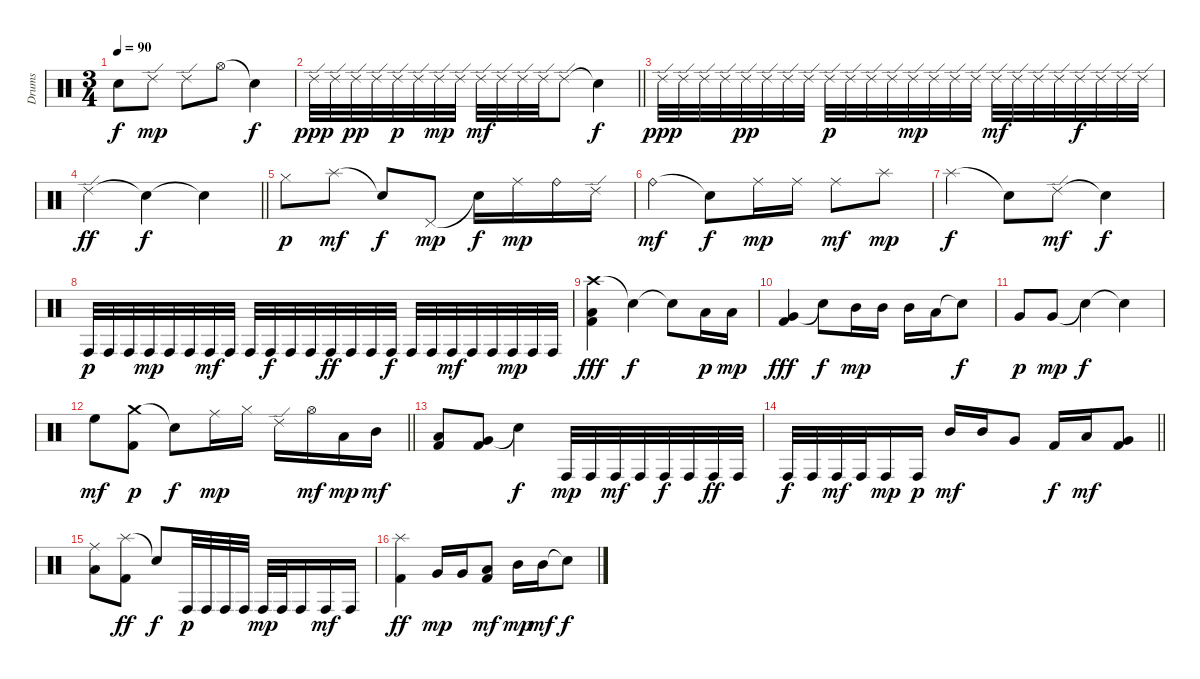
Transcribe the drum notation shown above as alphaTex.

\track ("Drums" "Drums") {instrument percussion}
\staff {score}
\articulation defaults
\ts (3 4)
\tempo 90
\clef neutral
\ks c "Snare (hit)"{t}.8{dy f} "Ride (edge) 2".8{dy mp} "Ride (edge) 2".8 "Hi-Hat (open)".8 "Snare (hit)"{t}.4{dy f}
|
\barLineRight lightlight "Ride (edge) 2".32{dy ppp} "Ride (edge) 2".32 "Ride (edge) 2".32{dy pp} "Ride (edge) 2".32 "Ride (edge) 2".32{dy p} "Ride (edge) 2".32 "Ride (edge) 2".32{dy mp} "Ride (edge) 2".32 "Ride (edge) 2".32{dy mf} "Ride (edge) 2".32 "Ride (edge) 2".32 "Ride (edge) 2".32 "Ride (edge) 2".8 "Snare (hit)"{t}.4{dy f}
|
"Ride (edge) 2".32{dy ppp} "Ride (edge) 2".32 "Ride (edge) 2".32 "Ride (edge) 2".32 "Ride (edge) 2".32{dy pp} "Ride (edge) 2".32 "Ride (edge) 2".32 "Ride (edge) 2".32 "Ride (edge) 2".32{dy p} "Ride (edge) 2".32 "Ride (edge) 2".32 "Ride (edge) 2".32 "Ride (edge) 2".32{dy mp} "Ride (edge) 2".32 "Ride (edge) 2".32 "Ride (edge) 2".32 "Ride (edge) 2".32{dy mf} "Ride (edge) 2".32 "Ride (edge) 2".32 "Ride (edge) 2".32 "Ride (edge) 2".32{dy f} "Ride (edge) 2".32 "Ride (edge) 2".32 "Ride (edge) 2".32 |
\barLineRight lightlight "Ride (edge) 2".4{dy ff} "Snare (hit)"{t}.4{dy f} "Snare (hit)"{t}.4
|
"Hi-Hat (closed)".8{dy p} "Splash (hit)".8{dy mf} "Snare (hit)"{t}.8{dy f} "Pedal Hi-Hat (hit)".8{dy mp} "Snare (hit)"{t}.16{dy f} "Ride (middle)".16{dy mp} "Ride (bell)".16 "Ride (edge) 2".16 |
"Ride (bell)".4{dy mf} "Snare (hit)"{t}.8{dy f} "Ride (middle)".16{dy mp} "Ride (middle)".16 "Ride (middle)".8{dy mf} "Splash (hit)".8{dy mp} |
"Splash (hit)".4{dy f} "Snare (hit)"{t}.8 "Ride (edge) 2".8{dy mf} "Snare (hit)"{t}.4{dy f} |
"Conga high (hit)".32{dy p} "Conga high (hit)".32 "Conga high (hit)".32 "Conga high (hit)".32{dy mp} "Conga high (hit)".32 "Conga high (hit)".32 "Conga high (hit)".32{dy mf} "Conga high (hit)".32 "Conga high (hit)".32 "Conga high (hit)".32{dy f} "Conga high (hit)".32 "Conga high (hit)".32 "Conga high (hit)".32{dy ff} "Conga high (hit)".32 "Conga high (hit)".32 "Conga high (hit)".32{dy f} "Conga high (hit)".32 "Conga high (hit)".32 "Conga high (hit)".32{dy mf} "Conga high (hit)".32 "Conga high (hit)".32 "Conga high (hit)".32{dy mp} "Conga high (hit)".32 "Conga high (hit)".32 |
("Crash high (hit)" "Low Tom (hit)" "Kick (hit) 2").4{dy fff} "Snare (hit)"{t}.4{dy f} "Snare (hit)"{t}.8 "Low Tom (hit)".16{dy p} "Low Tom (hit)".16{dy mp} |
("Very Low Tom (hit)" "Kick (hit) 2").4{dy fff} "Snare (hit)"{t}.8{dy f} "Mid Tom (hit)".16{dy mp} "Mid Tom (hit)".16 "Mid Tom (hit)".16 "Low Tom (hit)".16 "Snare (hit)"{t}.8{dy f} |
"Very Low Tom (hit)".8{dy p} "Very Low Tom (hit)".8{dy mp} "Snare (hit)"{t}.4{dy f} "Snare (hit)"{t}.4 |
\barLineRight lightlight "High Floor Tom (hit)".8{dy mf}
("Crash medium (hit)" "Kick (hit) 2").8{dy p} "Snare (hit)"{t}.8{dy f} "Ride (middle)".16{dy mp} "Hi-Hat (closed)".16 "Ride (edge) 2".16 "Hi-Hat (open)".16{dy mf} "Low Tom (hit)".16{dy mp} "Mid Tom (hit)".16{dy mf} |
("Low Tom (hit)" "Kick (hit) 2").8 ("Very Low Tom (hit)" "Kick (hit) 2").8 "Snare (hit)"{t}.4{dy f} "Conga high (hit)".32{dy mp} "Conga high (hit)".32 "Conga high (hit)".32{dy mf} "Conga high (hit)".32 "Conga high (hit)".32{dy f} "Conga high (hit)".32 "Conga high (hit)".32{dy ff} "Conga high (hit)".32 |
\barLineRight lightlight "Conga high (hit)".32{dy f} "Conga high (hit)".32 "Conga high (hit)".32{dy mf} "Conga high (hit)".32 "Conga high (hit)".16{dy mp} "Conga high (hit)".16{dy p} "Mid Tom (hit)".16{dy mf} "Mid Tom (hit)".16 "Very Low Tom (hit)".8 "Kick (hit) 2".16{dy f} "Low Tom (hit)".16{dy mf}
("Very Low Tom (hit)" "Kick (hit) 2").8 |
("Ride (middle)" "Low Tom (hit)").8 ("Splash (hit)" "Kick (hit) 2").8{dy ff} "Snare (hit)"{t}.8{dy f} "Conga high (hit)".32{dy p} "Conga high (hit)".32 "Conga high (hit)".32 "Conga high (hit)".32 "Conga high (hit)".32{dy mp} "Conga high (hit)".32 "Conga high (hit)".16 "Conga high (hit)".16{dy mf} "Conga high (hit)".16 |
("Splash (hit)" "Kick (hit) 2").4{dy ff} "Very Low Tom (hit)".16{dy mp} "Very Low Tom (hit)".16 ("Low Floor Tom (hit)" "Kick (hit) 2").8{dy mf} "Mid Tom (hit)".16{dy mp} "Mid Tom (hit)".16{dy mf} "Snare (hit)"{t}.8{dy f}
